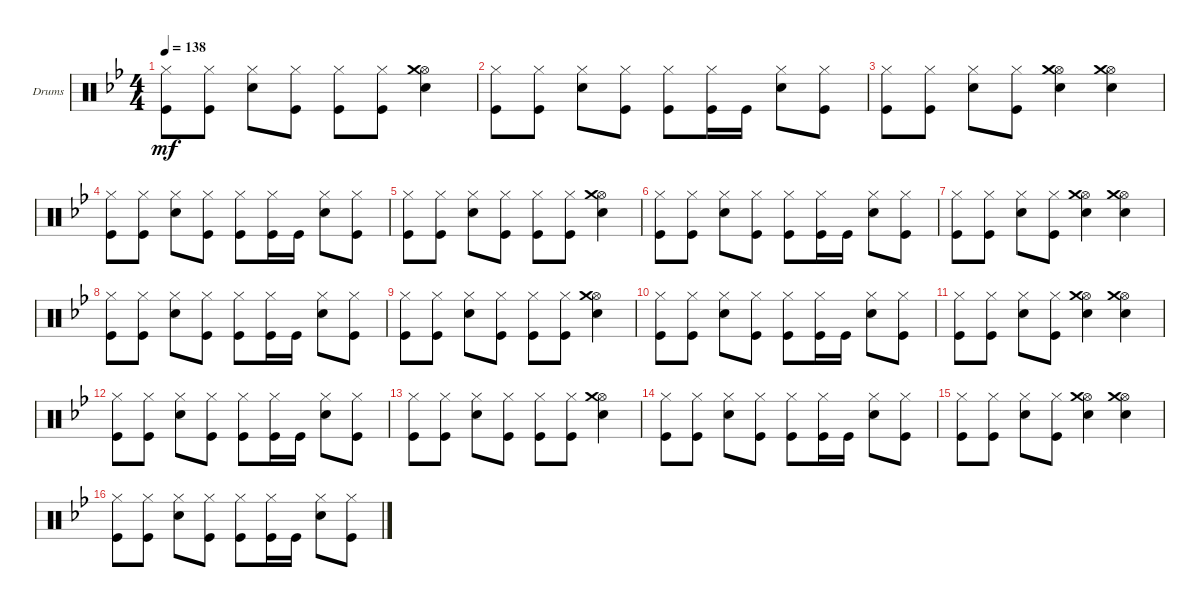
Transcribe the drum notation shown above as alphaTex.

\defaultSystemsLayout 4
\bracketExtendMode groupsimilarinstruments
\firstSystemTrackNameOrientation horizontal
\otherSystemsTrackNameOrientation horizontal
\track ("Drumkit" "Drums") {instrument percussion}
\staff {score}
\articulation defaults
\ts (4 4)
\tempo 138
\clef neutral
\ks gminor
("Hi-Hat (closed)" "Kick (hit)").8{dy mf} ("Hi-Hat (closed)" "Kick (hit)").8 ("Hi-Hat (closed)" "Snare (hit) 2").8 ("Hi-Hat (closed)" "Kick (hit)").8 ("Hi-Hat (closed)" "Kick (hit)").8 ("Hi-Hat (closed)" "Kick (hit)").8 ("Hi-Hat (open)" "Crash medium (hit)" "Snare (hit) 2").4 |
("Hi-Hat (closed)" "Kick (hit)").8 ("Hi-Hat (closed)" "Kick (hit)").8 ("Hi-Hat (closed)" "Snare (hit) 2").8 ("Hi-Hat (closed)" "Kick (hit)").8 ("Hi-Hat (closed)" "Kick (hit)").8 ("Hi-Hat (closed)" "Kick (hit)").16 "Kick (hit)".16 ("Hi-Hat (closed)" "Snare (hit) 2").8 ("Hi-Hat (closed)" "Kick (hit)").8 |
("Hi-Hat (closed)" "Kick (hit)").8 ("Hi-Hat (closed)" "Kick (hit)").8 ("Hi-Hat (closed)" "Snare (hit) 2").8 ("Hi-Hat (closed)" "Kick (hit)").8 ("Hi-Hat (open)" "Crash medium (hit)" "Snare (hit) 2").4 ("Hi-Hat (open)" "Crash medium (hit)" "Snare (hit) 2").4 |
("Hi-Hat (closed)" "Kick (hit)").8 ("Hi-Hat (closed)" "Kick (hit)").8 ("Hi-Hat (closed)" "Snare (hit) 2").8 ("Hi-Hat (closed)" "Kick (hit)").8 ("Hi-Hat (closed)" "Kick (hit)").8 ("Hi-Hat (closed)" "Kick (hit)").16 "Kick (hit)".16 ("Hi-Hat (closed)" "Snare (hit) 2").8 ("Hi-Hat (closed)" "Kick (hit)").8 |
("Hi-Hat (closed)" "Kick (hit)").8 ("Hi-Hat (closed)" "Kick (hit)").8 ("Hi-Hat (closed)" "Snare (hit) 2").8 ("Hi-Hat (closed)" "Kick (hit)").8 ("Hi-Hat (closed)" "Kick (hit)").8 ("Hi-Hat (closed)" "Kick (hit)").8 ("Hi-Hat (open)" "Crash medium (hit)" "Snare (hit) 2").4 |
("Hi-Hat (closed)" "Kick (hit)").8 ("Hi-Hat (closed)" "Kick (hit)").8 ("Hi-Hat (closed)" "Snare (hit) 2").8 ("Hi-Hat (closed)" "Kick (hit)").8 ("Hi-Hat (closed)" "Kick (hit)").8 ("Hi-Hat (closed)" "Kick (hit)").16 "Kick (hit)".16 ("Hi-Hat (closed)" "Snare (hit) 2").8 ("Hi-Hat (closed)" "Kick (hit)").8 |
("Hi-Hat (closed)" "Kick (hit)").8 ("Hi-Hat (closed)" "Kick (hit)").8 ("Hi-Hat (closed)" "Snare (hit) 2").8 ("Hi-Hat (closed)" "Kick (hit)").8 ("Hi-Hat (open)" "Crash medium (hit)" "Snare (hit) 2").4 ("Hi-Hat (open)" "Crash medium (hit)" "Snare (hit) 2").4 |
("Hi-Hat (closed)" "Kick (hit)").8 ("Hi-Hat (closed)" "Kick (hit)").8 ("Hi-Hat (closed)" "Snare (hit) 2").8 ("Hi-Hat (closed)" "Kick (hit)").8 ("Hi-Hat (closed)" "Kick (hit)").8 ("Hi-Hat (closed)" "Kick (hit)").16 "Kick (hit)".16 ("Hi-Hat (closed)" "Snare (hit) 2").8 ("Hi-Hat (closed)" "Kick (hit)").8 |
("Hi-Hat (closed)" "Kick (hit)").8 ("Hi-Hat (closed)" "Kick (hit)").8 ("Hi-Hat (closed)" "Snare (hit) 2").8 ("Hi-Hat (closed)" "Kick (hit)").8 ("Hi-Hat (closed)" "Kick (hit)").8 ("Hi-Hat (closed)" "Kick (hit)").8 ("Hi-Hat (open)" "Crash medium (hit)" "Snare (hit) 2").4 |
("Hi-Hat (closed)" "Kick (hit)").8 ("Hi-Hat (closed)" "Kick (hit)").8 ("Hi-Hat (closed)" "Snare (hit) 2").8 ("Hi-Hat (closed)" "Kick (hit)").8 ("Hi-Hat (closed)" "Kick (hit)").8 ("Hi-Hat (closed)" "Kick (hit)").16 "Kick (hit)".16 ("Hi-Hat (closed)" "Snare (hit) 2").8 ("Hi-Hat (closed)" "Kick (hit)").8 |
("Hi-Hat (closed)" "Kick (hit)").8 ("Hi-Hat (closed)" "Kick (hit)").8 ("Hi-Hat (closed)" "Snare (hit) 2").8 ("Hi-Hat (closed)" "Kick (hit)").8 ("Hi-Hat (open)" "Crash medium (hit)" "Snare (hit) 2").4 ("Hi-Hat (open)" "Crash medium (hit)" "Snare (hit) 2").4 |
("Hi-Hat (closed)" "Kick (hit)").8 ("Hi-Hat (closed)" "Kick (hit)").8 ("Hi-Hat (closed)" "Snare (hit) 2").8 ("Hi-Hat (closed)" "Kick (hit)").8 ("Hi-Hat (closed)" "Kick (hit)").8 ("Hi-Hat (closed)" "Kick (hit)").16 "Kick (hit)".16 ("Hi-Hat (closed)" "Snare (hit) 2").8 ("Hi-Hat (closed)" "Kick (hit)").8 |
("Hi-Hat (closed)" "Kick (hit)").8 ("Hi-Hat (closed)" "Kick (hit)").8 ("Hi-Hat (closed)" "Snare (hit) 2").8 ("Hi-Hat (closed)" "Kick (hit)").8 ("Hi-Hat (closed)" "Kick (hit)").8 ("Hi-Hat (closed)" "Kick (hit)").8 ("Hi-Hat (open)" "Crash medium (hit)" "Snare (hit) 2").4 |
("Hi-Hat (closed)" "Kick (hit)").8 ("Hi-Hat (closed)" "Kick (hit)").8 ("Hi-Hat (closed)" "Snare (hit) 2").8 ("Hi-Hat (closed)" "Kick (hit)").8 ("Hi-Hat (closed)" "Kick (hit)").8 ("Hi-Hat (closed)" "Kick (hit)").16 "Kick (hit)".16 ("Hi-Hat (closed)" "Snare (hit) 2").8 ("Hi-Hat (closed)" "Kick (hit)").8 |
("Hi-Hat (closed)" "Kick (hit)").8 ("Hi-Hat (closed)" "Kick (hit)").8 ("Hi-Hat (closed)" "Snare (hit) 2").8 ("Hi-Hat (closed)" "Kick (hit)").8 ("Hi-Hat (open)" "Crash medium (hit)" "Snare (hit) 2").4 ("Hi-Hat (open)" "Crash medium (hit)" "Snare (hit) 2").4 |
("Hi-Hat (closed)" "Kick (hit)").8 ("Hi-Hat (closed)" "Kick (hit)").8 ("Hi-Hat (closed)" "Snare (hit) 2").8 ("Hi-Hat (closed)" "Kick (hit)").8 ("Hi-Hat (closed)" "Kick (hit)").8 ("Hi-Hat (closed)" "Kick (hit)").16 "Kick (hit)".16 ("Hi-Hat (closed)" "Snare (hit) 2").8 ("Hi-Hat (closed)" "Kick (hit)").8
